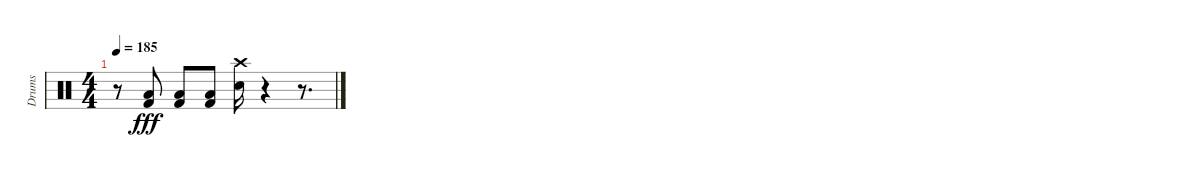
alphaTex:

\track ("Drums" "Drums") {instrument percussion}
\staff {score}
\articulation defaults
\ts (4 4)
\tempo 185
\clef neutral
\ks aminor
r.8{dy fff} ("Kick (hit) 2" "Low Floor Tom (hit)").8 ("Kick (hit) 2" "Low Floor Tom (hit)").8 ("Low Floor Tom (hit)" "Kick (hit) 2").8 ("Crash high (hit)" "Snare (hit) 2").16 r.4 r.8{d}
